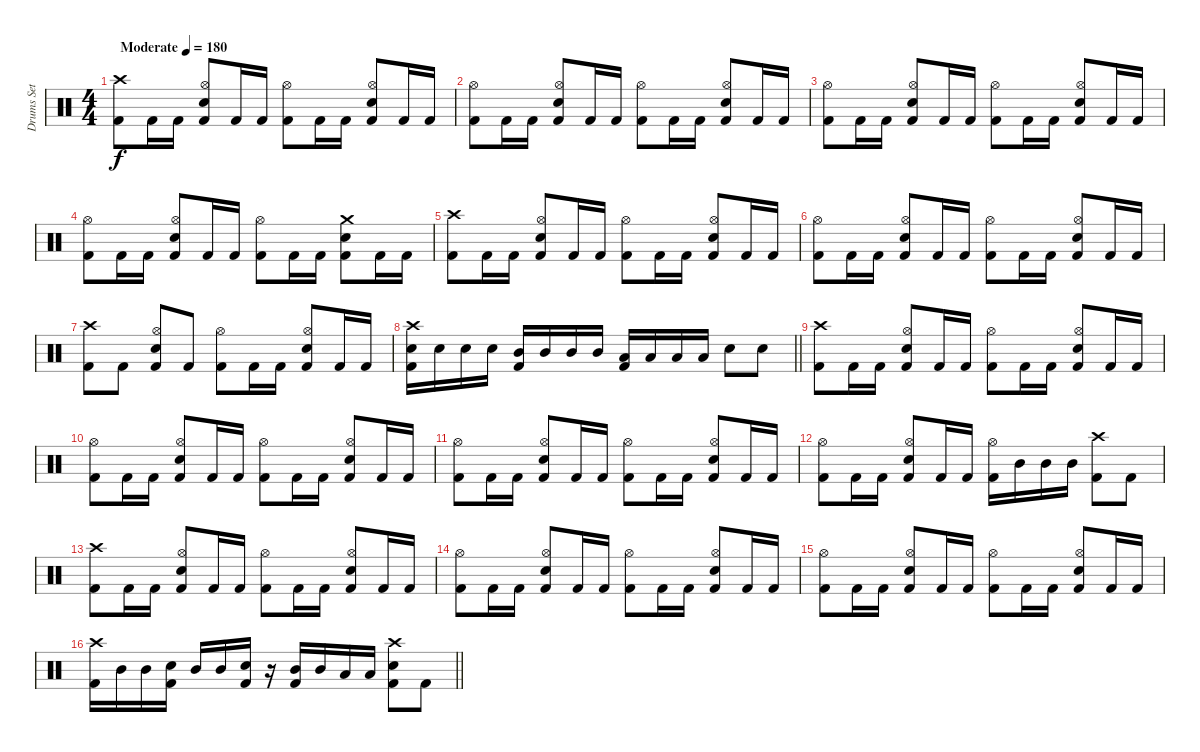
\track ("Drums Set" "Drums Set") {instrument percussion}
\staff {score}
\articulation defaults
\ts (4 4)
\tempo (180 "Moderate")
\clef neutral
\ks c
("Crash high (hit)" "Kick (hit) 2").8{dy f} "Kick (hit) 2".16 "Kick (hit) 2".16 ("Hi-Hat (open)" "Snare (hit) 2" "Kick (hit) 2").8 "Kick (hit) 2".16 "Kick (hit) 2".16 ("Hi-Hat (open)" "Kick (hit) 2").8 "Kick (hit) 2".16 "Kick (hit) 2".16 ("Hi-Hat (open)" "Snare (hit) 2" "Kick (hit) 2").8 "Kick (hit) 2".16 "Kick (hit) 2".16 |
("Hi-Hat (open)" "Kick (hit) 2").8 "Kick (hit) 2".16 "Kick (hit) 2".16 ("Hi-Hat (open)" "Snare (hit) 2" "Kick (hit) 2").8 "Kick (hit) 2".16 "Kick (hit) 2".16 ("Hi-Hat (open)" "Kick (hit) 2").8 "Kick (hit) 2".16 "Kick (hit) 2".16 ("Hi-Hat (open)" "Snare (hit) 2" "Kick (hit) 2").8 "Kick (hit) 2".16 "Kick (hit) 2".16 |
("Hi-Hat (open)" "Kick (hit) 2").8 "Kick (hit) 2".16 "Kick (hit) 2".16 ("Hi-Hat (open)" "Snare (hit) 2" "Kick (hit) 2").8 "Kick (hit) 2".16 "Kick (hit) 2".16 ("Hi-Hat (open)" "Kick (hit) 2").8 "Kick (hit) 2".16 "Kick (hit) 2".16 ("Hi-Hat (open)" "Snare (hit) 2" "Kick (hit) 2").8 "Kick (hit) 2".16 "Kick (hit) 2".16 |
("Hi-Hat (open)" "Kick (hit) 2").8 "Kick (hit) 2".16 "Kick (hit) 2".16 ("Hi-Hat (open)" "Snare (hit) 2" "Kick (hit) 2").8 "Kick (hit) 2".16 "Kick (hit) 2".16 ("Hi-Hat (open)" "Kick (hit) 2").8 "Kick (hit) 2".16 "Kick (hit) 2".16 ("Crash medium (hit)" "Snare (hit) 2" "Kick (hit) 2").8 "Kick (hit) 2".16 "Kick (hit) 2".16 |
("Crash high (hit)" "Kick (hit) 2").8 "Kick (hit) 2".16 "Kick (hit) 2".16 ("Hi-Hat (open)" "Snare (hit) 2" "Kick (hit) 2").8 "Kick (hit) 2".16 "Kick (hit) 2".16 ("Hi-Hat (open)" "Kick (hit) 2").8 "Kick (hit) 2".16 "Kick (hit) 2".16 ("Hi-Hat (open)" "Snare (hit) 2" "Kick (hit) 2").8 "Kick (hit) 2".16 "Kick (hit) 2".16 |
("Hi-Hat (open)" "Kick (hit) 2").8 "Kick (hit) 2".16 "Kick (hit) 2".16 ("Hi-Hat (open)" "Snare (hit) 2" "Kick (hit) 2").8 "Kick (hit) 2".16 "Kick (hit) 2".16 ("Hi-Hat (open)" "Kick (hit) 2").8 "Kick (hit) 2".16 "Kick (hit) 2".16 ("Hi-Hat (open)" "Snare (hit) 2" "Kick (hit) 2").8 "Kick (hit) 2".16 "Kick (hit) 2".16 |
("Crash high (hit)" "Kick (hit) 2").8 "Kick (hit) 2".8 ("Hi-Hat (open)" "Snare (hit) 2" "Kick (hit) 2").8 "Kick (hit) 2".8 ("Hi-Hat (open)" "Kick (hit) 2").8 "Kick (hit) 2".16 "Kick (hit) 2".16 ("Hi-Hat (open)" "Snare (hit) 2" "Kick (hit) 2").8 "Kick (hit) 2".16 "Kick (hit) 2".16 |
\barLineRight lightlight
("Crash high (hit)" "Snare (hit) 2" "Kick (hit) 2").16 "Snare (hit) 2".16 "Snare (hit) 2".16 "Snare (hit) 2".16 ("Mid Tom (hit)" "Kick (hit) 2").16 "Mid Tom (hit)".16 "Mid Tom (hit)".16 "Mid Tom (hit)".16 ("Low Tom (hit)" "Kick (hit) 2").16 "Low Tom (hit)".16 "Low Tom (hit)".16 "Low Tom (hit)".16 "Snare (hit) 2".8 "Snare (hit) 2".8 |
("Crash high (hit)" "Kick (hit) 2").8 "Kick (hit) 2".16 "Kick (hit) 2".16 ("Hi-Hat (open)" "Snare (hit) 2" "Kick (hit) 2").8 "Kick (hit) 2".16 "Kick (hit) 2".16 ("Hi-Hat (open)" "Kick (hit) 2").8 "Kick (hit) 2".16 "Kick (hit) 2".16 ("Hi-Hat (open)" "Snare (hit) 2" "Kick (hit) 2").8 "Kick (hit) 2".16 "Kick (hit) 2".16 |
("Hi-Hat (open)" "Kick (hit) 2").8 "Kick (hit) 2".16 "Kick (hit) 2".16 ("Hi-Hat (open)" "Snare (hit) 2" "Kick (hit) 2").8 "Kick (hit) 2".16 "Kick (hit) 2".16 ("Hi-Hat (open)" "Kick (hit) 2").8 "Kick (hit) 2".16 "Kick (hit) 2".16 ("Hi-Hat (open)" "Snare (hit) 2" "Kick (hit) 2").8 "Kick (hit) 2".16 "Kick (hit) 2".16 |
("Hi-Hat (open)" "Kick (hit) 2").8 "Kick (hit) 2".16 "Kick (hit) 2".16 ("Hi-Hat (open)" "Snare (hit) 2" "Kick (hit) 2").8 "Kick (hit) 2".16 "Kick (hit) 2".16 ("Hi-Hat (open)" "Kick (hit) 2").8 "Kick (hit) 2".16 "Kick (hit) 2".16 ("Hi-Hat (open)" "Snare (hit) 2" "Kick (hit) 2").8 "Kick (hit) 2".16 "Kick (hit) 2".16 |
("Hi-Hat (open)" "Kick (hit) 2").8 "Kick (hit) 2".16 "Kick (hit) 2".16 ("Hi-Hat (open)" "Snare (hit) 2" "Kick (hit) 2").8 "Kick (hit) 2".16 "Kick (hit) 2".16 ("Hi-Hat (open)" "Kick (hit) 2").16 "Mid Tom (hit)".16 "Mid Tom (hit)".16 "Mid Tom (hit)".16 ("Crash high (hit)" "Kick (hit) 2").8 "Kick (hit) 2".8 |
("Crash high (hit)" "Kick (hit) 2").8 "Kick (hit) 2".16 "Kick (hit) 2".16 ("Hi-Hat (open)" "Snare (hit) 2" "Kick (hit) 2").8 "Kick (hit) 2".16 "Kick (hit) 2".16 ("Hi-Hat (open)" "Kick (hit) 2").8 "Kick (hit) 2".16 "Kick (hit) 2".16 ("Hi-Hat (open)" "Snare (hit) 2" "Kick (hit) 2").8 "Kick (hit) 2".16 "Kick (hit) 2".16 |
("Hi-Hat (open)" "Kick (hit) 2").8 "Kick (hit) 2".16 "Kick (hit) 2".16 ("Hi-Hat (open)" "Snare (hit) 2" "Kick (hit) 2").8 "Kick (hit) 2".16 "Kick (hit) 2".16 ("Hi-Hat (open)" "Kick (hit) 2").8 "Kick (hit) 2".16 "Kick (hit) 2".16 ("Hi-Hat (open)" "Snare (hit) 2" "Kick (hit) 2").8 "Kick (hit) 2".16 "Kick (hit) 2".16 |
("Hi-Hat (open)" "Kick (hit) 2").8 "Kick (hit) 2".16 "Kick (hit) 2".16 ("Hi-Hat (open)" "Snare (hit) 2" "Kick (hit) 2").8 "Kick (hit) 2".16 "Kick (hit) 2".16 ("Hi-Hat (open)" "Kick (hit) 2").8 "Kick (hit) 2".16 "Kick (hit) 2".16 ("Hi-Hat (open)" "Snare (hit) 2" "Kick (hit) 2").8 "Kick (hit) 2".16 "Kick (hit) 2".16 |
\barLineRight lightlight
("Crash high (hit)" "Kick (hit) 2").16 "Mid Tom (hit)".16 "Mid Tom (hit)".16 ("Snare (hit) 2" "Kick (hit) 2").16 "Mid Tom (hit)".16 "Mid Tom (hit)".16 ("Snare (hit) 2" "Kick (hit) 2").16 r.16 ("Mid Tom (hit)" "Kick (hit) 2").16 "Mid Tom (hit)".16 "Low Tom (hit)".16 "Low Tom (hit)".16 ("Crash high (hit)" "Snare (hit) 2" "Kick (hit) 2").8 "Kick (hit) 2".8
